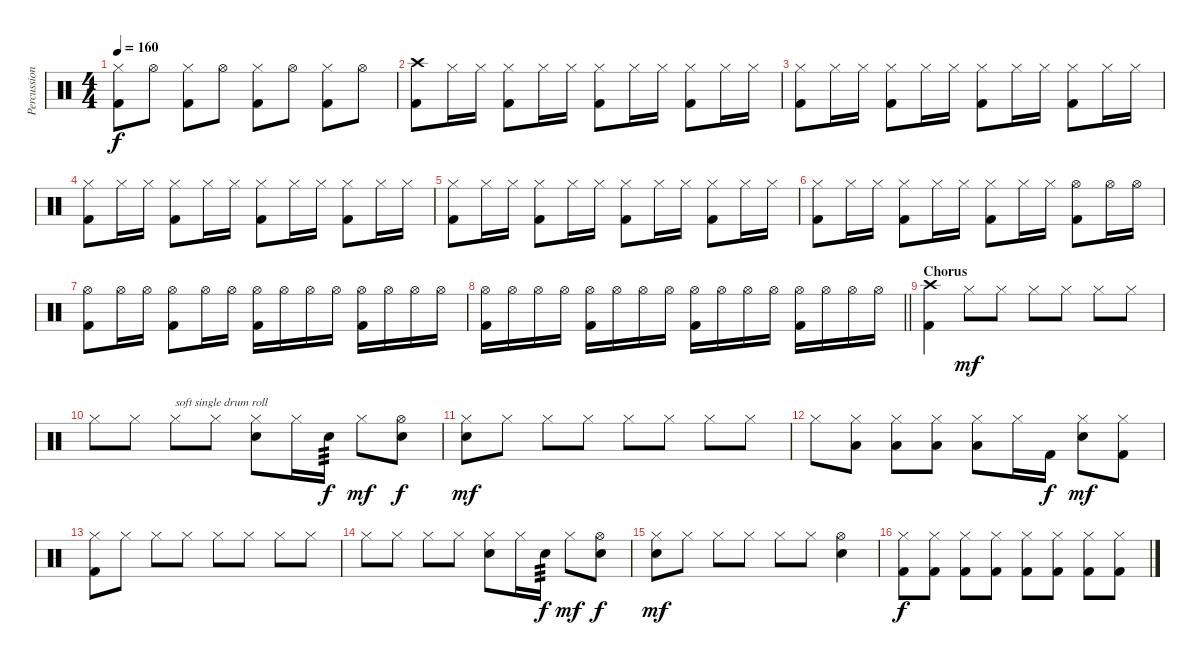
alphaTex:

\track ("Percussion" "Percussion") {instrument percussion}
\staff {score}
\articulation defaults
\ts (4 4)
\tempo 160
\clef neutral
\ks c
("Hi-Hat (closed)" "Kick (hit) 2").8{dy f} "Hi-Hat (open)".8 ("Hi-Hat (closed)" "Kick (hit) 2").8 "Hi-Hat (open)".8 ("Hi-Hat (closed)" "Kick (hit) 2").8 "Hi-Hat (open)".8 ("Hi-Hat (closed)" "Kick (hit) 2").8 "Hi-Hat (open)".8 |
("Crash high (hit)" "Kick (hit) 2").8 "Hi-Hat (closed)".16 "Hi-Hat (closed)".16 ("Hi-Hat (closed)" "Kick (hit) 2").8 "Hi-Hat (closed)".16 "Hi-Hat (closed)".16 ("Hi-Hat (closed)" "Kick (hit) 2").8 "Hi-Hat (closed)".16 "Hi-Hat (closed)".16 ("Hi-Hat (closed)" "Kick (hit) 2").8 "Hi-Hat (closed)".16 "Hi-Hat (closed)".16 |
("Hi-Hat (closed)" "Kick (hit) 2").8 "Hi-Hat (closed)".16 "Hi-Hat (closed)".16 ("Hi-Hat (closed)" "Kick (hit) 2").8 "Hi-Hat (closed)".16 "Hi-Hat (closed)".16 ("Hi-Hat (closed)" "Kick (hit) 2").8 "Hi-Hat (closed)".16 "Hi-Hat (closed)".16 ("Hi-Hat (closed)" "Kick (hit) 2").8 "Hi-Hat (closed)".16 "Hi-Hat (closed)".16 |
("Hi-Hat (closed)" "Kick (hit) 2").8 "Hi-Hat (closed)".16 "Hi-Hat (closed)".16 ("Hi-Hat (closed)" "Kick (hit) 2").8 "Hi-Hat (closed)".16 "Hi-Hat (closed)".16 ("Hi-Hat (closed)" "Kick (hit) 2").8 "Hi-Hat (closed)".16 "Hi-Hat (closed)".16 ("Hi-Hat (closed)" "Kick (hit) 2").8 "Hi-Hat (closed)".16 "Hi-Hat (closed)".16 |
("Hi-Hat (closed)" "Kick (hit) 2").8 "Hi-Hat (closed)".16 "Hi-Hat (closed)".16 ("Hi-Hat (closed)" "Kick (hit) 2").8 "Hi-Hat (closed)".16 "Hi-Hat (closed)".16 ("Hi-Hat (closed)" "Kick (hit) 2").8 "Hi-Hat (closed)".16 "Hi-Hat (closed)".16 ("Hi-Hat (closed)" "Kick (hit) 2").8 "Hi-Hat (closed)".16 "Hi-Hat (closed)".16 |
("Hi-Hat (closed)" "Kick (hit) 2").8 "Hi-Hat (closed)".16 "Hi-Hat (closed)".16 ("Hi-Hat (closed)" "Kick (hit) 2").8 "Hi-Hat (closed)".16 "Hi-Hat (closed)".16 ("Hi-Hat (closed)" "Kick (hit) 2").8 "Hi-Hat (closed)".16 "Hi-Hat (closed)".16 ("Hi-Hat (open)" "Kick (hit) 2").8 "Hi-Hat (open)".16 "Hi-Hat (open)".16 |
("Hi-Hat (open)" "Kick (hit) 2").8 "Hi-Hat (open)".16 "Hi-Hat (open)".16 ("Hi-Hat (open)" "Kick (hit) 2").8 "Hi-Hat (open)".16 "Hi-Hat (open)".16 ("Hi-Hat (open)" "Kick (hit) 2").16 "Hi-Hat (open)".16 "Hi-Hat (open)".16 "Hi-Hat (open)".16 ("Hi-Hat (open)" "Kick (hit) 2").16 "Hi-Hat (open)".16 "Hi-Hat (open)".16 "Hi-Hat (open)".16 |
\barLineRight lightlight
("Hi-Hat (open)" "Kick (hit) 2").16 "Hi-Hat (open)".16 "Hi-Hat (open)".16 "Hi-Hat (open)".16 ("Hi-Hat (open)" "Kick (hit) 2").16 "Hi-Hat (open)".16 "Hi-Hat (open)".16 "Hi-Hat (open)".16 ("Hi-Hat (open)" "Kick (hit) 2").16 "Hi-Hat (open)".16 "Hi-Hat (open)".16 "Hi-Hat (open)".16 ("Hi-Hat (open)" "Kick (hit) 2").16 "Hi-Hat (open)".16 "Hi-Hat (open)".16 "Hi-Hat (open)".16 |
\section ("" "Chorus")
("Crash high (hit)" "Kick (hit) 2").4 "Hi-Hat (closed)".8{dy mf} "Hi-Hat (closed)".8 "Hi-Hat (closed)".8 "Hi-Hat (closed)".8 "Hi-Hat (closed)".8 "Hi-Hat (closed)".8 |
"Hi-Hat (closed)".8 "Hi-Hat (closed)".8 "Hi-Hat (closed)".8{txt "soft single drum roll"} "Hi-Hat (closed)".8 ("Hi-Hat (closed)" "Electric Snare (hit)").8 "Hi-Hat (closed)".16 "Electric Snare (hit)".16{tp 3 dy f} "Hi-Hat (closed)".8{dy mf} ("Hi-Hat (open)" "Electric Snare (hit)").8{dy f} |
("Hi-Hat (closed)" "Electric Snare (hit)").8{dy mf} "Hi-Hat (closed)".8 "Hi-Hat (closed)".8 "Hi-Hat (closed)".8 "Hi-Hat (closed)".8 "Hi-Hat (closed)".8 "Hi-Hat (closed)".8 "Hi-Hat (closed)".8 |
"Hi-Hat (closed)".8 ("Hi-Hat (closed)" "Low Tom (hit)").8 ("Hi-Hat (closed)" "Low Tom (hit)").8 ("Hi-Hat (closed)" "Low Tom (hit)").8 ("Hi-Hat (closed)" "Low Floor Tom (hit)").8 "Hi-Hat (closed)".16 "Kick (hit) 2".16{dy f} ("Hi-Hat (closed)" "Electric Snare (hit)").8{dy mf} ("Hi-Hat (closed)" "Kick (hit) 2").8 |
("Hi-Hat (closed)" "Kick (hit) 2").8 "Hi-Hat (closed)".8 "Hi-Hat (closed)".8 "Hi-Hat (closed)".8 "Hi-Hat (closed)".8 "Hi-Hat (closed)".8 "Hi-Hat (closed)".8 "Hi-Hat (closed)".8 |
"Hi-Hat (closed)".8 "Hi-Hat (closed)".8 "Hi-Hat (closed)".8 "Hi-Hat (closed)".8 ("Hi-Hat (closed)" "Electric Snare (hit)").8 "Hi-Hat (closed)".16 "Electric Snare (hit)".16{tp 3 dy f} "Hi-Hat (closed)".8{dy mf} ("Hi-Hat (open)" "Electric Snare (hit)").8{dy f} |
("Hi-Hat (closed)" "Electric Snare (hit)").8{dy mf} "Hi-Hat (closed)".8 "Hi-Hat (closed)".8 "Hi-Hat (closed)".8 "Hi-Hat (closed)".8 "Hi-Hat (closed)".8 ("Hi-Hat (open)" "Electric Snare (hit)").4 |
("Hi-Hat (closed)" "Kick (hit) 2").8{dy f} ("Hi-Hat (closed)" "Kick (hit) 2").8 ("Hi-Hat (closed)" "Kick (hit) 2").8 ("Hi-Hat (closed)" "Kick (hit) 2").8 ("Hi-Hat (closed)" "Kick (hit) 2").8 ("Hi-Hat (closed)" "Kick (hit) 2").8 ("Hi-Hat (closed)" "Kick (hit) 2").8 ("Hi-Hat (closed)" "Kick (hit) 2").8
